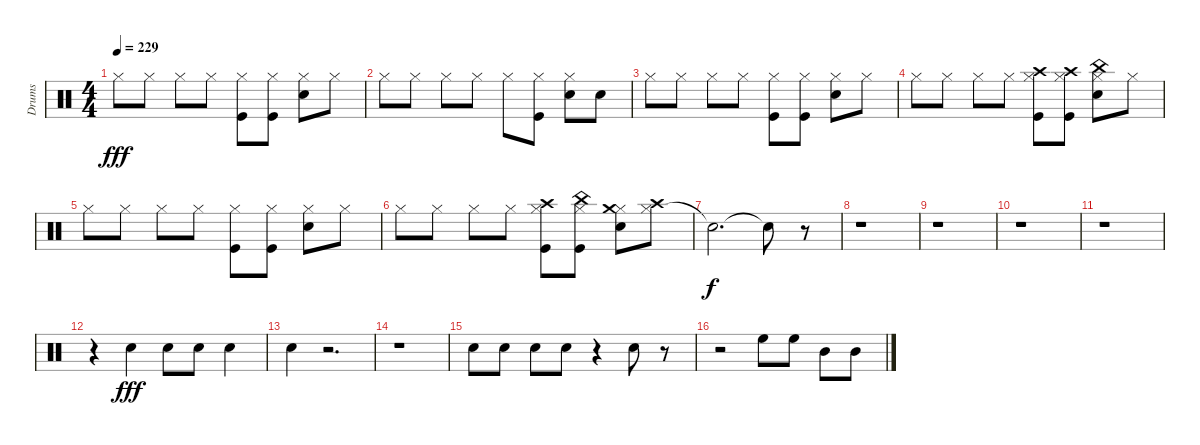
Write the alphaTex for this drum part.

\track ("Drums" "Drums") {instrument percussion}
\staff {score}
\articulation defaults
\ts (4 4)
\tempo 229
\clef neutral
\ks c "Hi-Hat (closed)".8{dy fff} "Hi-Hat (closed)".8 "Hi-Hat (closed)".8 "Hi-Hat (closed)".8
("Hi-Hat (closed)" "Kick (hit)").8 ("Kick (hit)" "Hi-Hat (closed)").8 ("Electric Snare (hit)" "Hi-Hat (closed)").8 "Hi-Hat (closed)".8 |
"Hi-Hat (closed)".8 "Hi-Hat (closed)".8 "Hi-Hat (closed)".8 "Hi-Hat (closed)".8 "Hi-Hat (closed)".8 ("Kick (hit)" "Hi-Hat (closed)").8 ("Electric Snare (hit)" "Hi-Hat (closed)").8 "Electric Snare (hit)".8 |
"Hi-Hat (closed)".8 "Hi-Hat (closed)".8 "Hi-Hat (closed)".8 "Hi-Hat (closed)".8 ("Hi-Hat (closed)" "Kick (hit)").8 ("Kick (hit)" "Hi-Hat (closed)").8 ("Electric Snare (hit)" "Hi-Hat (closed)").8 "Hi-Hat (closed)".8 |
"Hi-Hat (closed)".8 "Hi-Hat (closed)".8 "Hi-Hat (closed)".8 "Hi-Hat (closed)".8 ("Crash high (hit)" "Hi-Hat (closed)" "Kick (hit)").8 ("Hi-Hat (closed)" "Crash high (hit)" "Kick (hit)").8 ("Electric Snare (hit)" "Hi-Hat (closed)" "China (hit)").8 "Hi-Hat (closed)".8 |
"Hi-Hat (closed)".8 "Hi-Hat (closed)".8 "Hi-Hat (closed)".8 "Hi-Hat (closed)".8 ("Hi-Hat (closed)" "Kick (hit)").8 ("Hi-Hat (closed)" "Kick (hit)").8 ("Electric Snare (hit)" "Hi-Hat (closed)").8 "Hi-Hat (closed)".8 |
"Hi-Hat (closed)".8 "Hi-Hat (closed)".8 "Hi-Hat (closed)".8 "Hi-Hat (closed)".8 ("Crash high (hit)" "Hi-Hat (closed)" "Kick (hit)").8 ("Hi-Hat (closed)" "China (hit)" "Kick (hit)").8 ("Electric Snare (hit)" "Hi-Hat (closed)" "Crash medium (hit)").8 ("Hi-Hat (closed)" "Crash high (hit)").8 |
"Snare (hit)"{t}.2{d dy f} "Snare (hit)"{t}.8 r.8 |
r.1 |
r.1 |
r.1 |
r.1 |
r.4 "Electric Snare (hit)".4{dy fff} "Electric Snare (hit)".8 "Electric Snare (hit)".8 "Electric Snare (hit)".4 |
"Electric Snare (hit)".4 r.2{d} |
r.1 |
"Electric Snare (hit)".8 "Electric Snare (hit)".8 "Electric Snare (hit)".8 "Electric Snare (hit)".8 r.4 "Electric Snare (hit)".8 r.8 |
r.2 "High Floor Tom (hit)".8 "High Floor Tom (hit)".8 "Mid Tom (hit)".8 "Mid Tom (hit)".8
